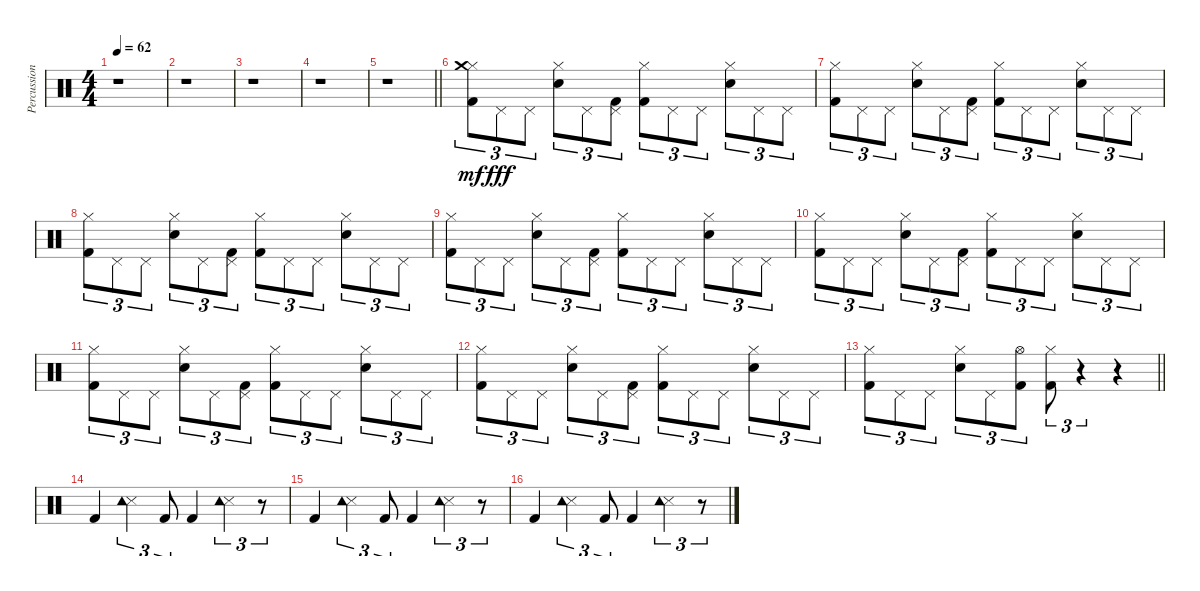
\track ("Percussion" "Percussion") {instrument percussion}
\staff {score}
\articulation defaults
\ts (4 4)
\tempo 62
\clef neutral
\ks c
r.1{dy f} |
r.1 |
r.1 |
r.1 |
\barLineRight lightlight
r.1 |
("Kick (hit) 2" "Hi-Hat (closed)" "Crash medium (hit)").8{tu (3 2) dy mf} "Pedal Hi-Hat (hit)".8{tu (3 2) dy fff} "Pedal Hi-Hat (hit)".8{tu (3 2)} ("Snare (hit) 2" "Hi-Hat (closed)").8{tu (3 2)} "Pedal Hi-Hat (hit)".8{tu (3 2)} ("Kick (hit) 2" "Pedal Hi-Hat (hit)").8{tu (3 2)} ("Kick (hit) 2" "Hi-Hat (closed)").8{tu (3 2)} "Pedal Hi-Hat (hit)".8{tu (3 2)} "Pedal Hi-Hat (hit)".8{tu (3 2)} ("Snare (hit) 2" "Hi-Hat (closed)").8{tu (3 2)} "Pedal Hi-Hat (hit)".8{tu (3 2)} "Pedal Hi-Hat (hit)".8{tu (3 2)} |
("Kick (hit) 2" "Hi-Hat (closed)").8{tu (3 2)} "Pedal Hi-Hat (hit)".8{tu (3 2)} "Pedal Hi-Hat (hit)".8{tu (3 2)} ("Snare (hit) 2" "Hi-Hat (closed)").8{tu (3 2)} "Pedal Hi-Hat (hit)".8{tu (3 2)} ("Kick (hit) 2" "Pedal Hi-Hat (hit)").8{tu (3 2)} ("Kick (hit) 2" "Hi-Hat (closed)").8{tu (3 2)} "Pedal Hi-Hat (hit)".8{tu (3 2)} "Pedal Hi-Hat (hit)".8{tu (3 2)} ("Snare (hit) 2" "Hi-Hat (closed)").8{tu (3 2)} "Pedal Hi-Hat (hit)".8{tu (3 2)} "Pedal Hi-Hat (hit)".8{tu (3 2)} |
("Kick (hit) 2" "Hi-Hat (closed)").8{tu (3 2)} "Pedal Hi-Hat (hit)".8{tu (3 2)} "Pedal Hi-Hat (hit)".8{tu (3 2)} ("Snare (hit) 2" "Hi-Hat (closed)").8{tu (3 2)} "Pedal Hi-Hat (hit)".8{tu (3 2)} ("Kick (hit) 2" "Pedal Hi-Hat (hit)").8{tu (3 2)} ("Kick (hit) 2" "Hi-Hat (closed)").8{tu (3 2)} "Pedal Hi-Hat (hit)".8{tu (3 2)} "Pedal Hi-Hat (hit)".8{tu (3 2)} ("Snare (hit) 2" "Hi-Hat (closed)").8{tu (3 2)} "Pedal Hi-Hat (hit)".8{tu (3 2)} "Pedal Hi-Hat (hit)".8{tu (3 2)} |
("Kick (hit) 2" "Hi-Hat (closed)").8{tu (3 2)} "Pedal Hi-Hat (hit)".8{tu (3 2)} "Pedal Hi-Hat (hit)".8{tu (3 2)} ("Snare (hit) 2" "Hi-Hat (closed)").8{tu (3 2)} "Pedal Hi-Hat (hit)".8{tu (3 2)} ("Kick (hit) 2" "Pedal Hi-Hat (hit)").8{tu (3 2)} ("Kick (hit) 2" "Hi-Hat (closed)").8{tu (3 2)} "Pedal Hi-Hat (hit)".8{tu (3 2)} "Pedal Hi-Hat (hit)".8{tu (3 2)} ("Snare (hit) 2" "Hi-Hat (closed)").8{tu (3 2)} "Pedal Hi-Hat (hit)".8{tu (3 2)} "Pedal Hi-Hat (hit)".8{tu (3 2)} |
("Kick (hit) 2" "Hi-Hat (closed)").8{tu (3 2)} "Pedal Hi-Hat (hit)".8{tu (3 2)} "Pedal Hi-Hat (hit)".8{tu (3 2)} ("Snare (hit) 2" "Hi-Hat (closed)").8{tu (3 2)} "Pedal Hi-Hat (hit)".8{tu (3 2)} ("Kick (hit) 2" "Pedal Hi-Hat (hit)").8{tu (3 2)} ("Kick (hit) 2" "Hi-Hat (closed)").8{tu (3 2)} "Pedal Hi-Hat (hit)".8{tu (3 2)} "Pedal Hi-Hat (hit)".8{tu (3 2)} ("Snare (hit) 2" "Hi-Hat (closed)").8{tu (3 2)} "Pedal Hi-Hat (hit)".8{tu (3 2)} "Pedal Hi-Hat (hit)".8{tu (3 2)} |
("Kick (hit) 2" "Hi-Hat (closed)").8{tu (3 2)} "Pedal Hi-Hat (hit)".8{tu (3 2)} "Pedal Hi-Hat (hit)".8{tu (3 2)} ("Snare (hit) 2" "Hi-Hat (closed)").8{tu (3 2)} "Pedal Hi-Hat (hit)".8{tu (3 2)} ("Kick (hit) 2" "Pedal Hi-Hat (hit)").8{tu (3 2)} ("Kick (hit) 2" "Hi-Hat (closed)").8{tu (3 2)} "Pedal Hi-Hat (hit)".8{tu (3 2)} "Pedal Hi-Hat (hit)".8{tu (3 2)} ("Snare (hit) 2" "Hi-Hat (closed)").8{tu (3 2)} "Pedal Hi-Hat (hit)".8{tu (3 2)} "Pedal Hi-Hat (hit)".8{tu (3 2)} |
("Kick (hit) 2" "Hi-Hat (closed)").8{tu (3 2)} "Pedal Hi-Hat (hit)".8{tu (3 2)} "Pedal Hi-Hat (hit)".8{tu (3 2)} ("Snare (hit) 2" "Hi-Hat (closed)").8{tu (3 2)} "Pedal Hi-Hat (hit)".8{tu (3 2)} ("Kick (hit) 2" "Pedal Hi-Hat (hit)").8{tu (3 2)} ("Kick (hit) 2" "Hi-Hat (closed)").8{tu (3 2)} "Pedal Hi-Hat (hit)".8{tu (3 2)} "Pedal Hi-Hat (hit)".8{tu (3 2)} ("Snare (hit) 2" "Hi-Hat (closed)").8{tu (3 2)} "Pedal Hi-Hat (hit)".8{tu (3 2)} "Pedal Hi-Hat (hit)".8{tu (3 2)} |
\barLineRight lightlight
("Kick (hit) 2" "Hi-Hat (closed)").8{tu (3 2)} "Pedal Hi-Hat (hit)".8{tu (3 2)} "Pedal Hi-Hat (hit)".8{tu (3 2)} ("Snare (hit) 2" "Hi-Hat (closed)").8{tu (3 2)} "Pedal Hi-Hat (hit)".8{tu (3 2)} ("Kick (hit) 2" "Hi-Hat (open)").8{tu (3 2)} ("Kick (hit) 2" "Hi-Hat (closed)").8{tu (3 2)} r.4{tu (3 2)} r.4 |
"Kick (hit) 2".4 ("Snare (side stick) 3" "Tambourine (hit)").4{tu (3 2)} "Kick (hit) 2".8{tu (3 2)} "Kick (hit) 2".4 ("Snare (side stick) 3" "Tambourine (hit)").4{tu (3 2)} r.8{tu (3 2)} |
"Kick (hit) 2".4 ("Snare (side stick) 3" "Tambourine (hit)").4{tu (3 2)} "Kick (hit) 2".8{tu (3 2)} "Kick (hit) 2".4 ("Snare (side stick) 3" "Tambourine (hit)").4{tu (3 2)} r.8{tu (3 2)} |
"Kick (hit) 2".4 ("Snare (side stick) 3" "Tambourine (hit)").4{tu (3 2)} "Kick (hit) 2".8{tu (3 2)} "Kick (hit) 2".4 ("Snare (side stick) 3" "Tambourine (hit)").4{tu (3 2)} r.8{tu (3 2)}
